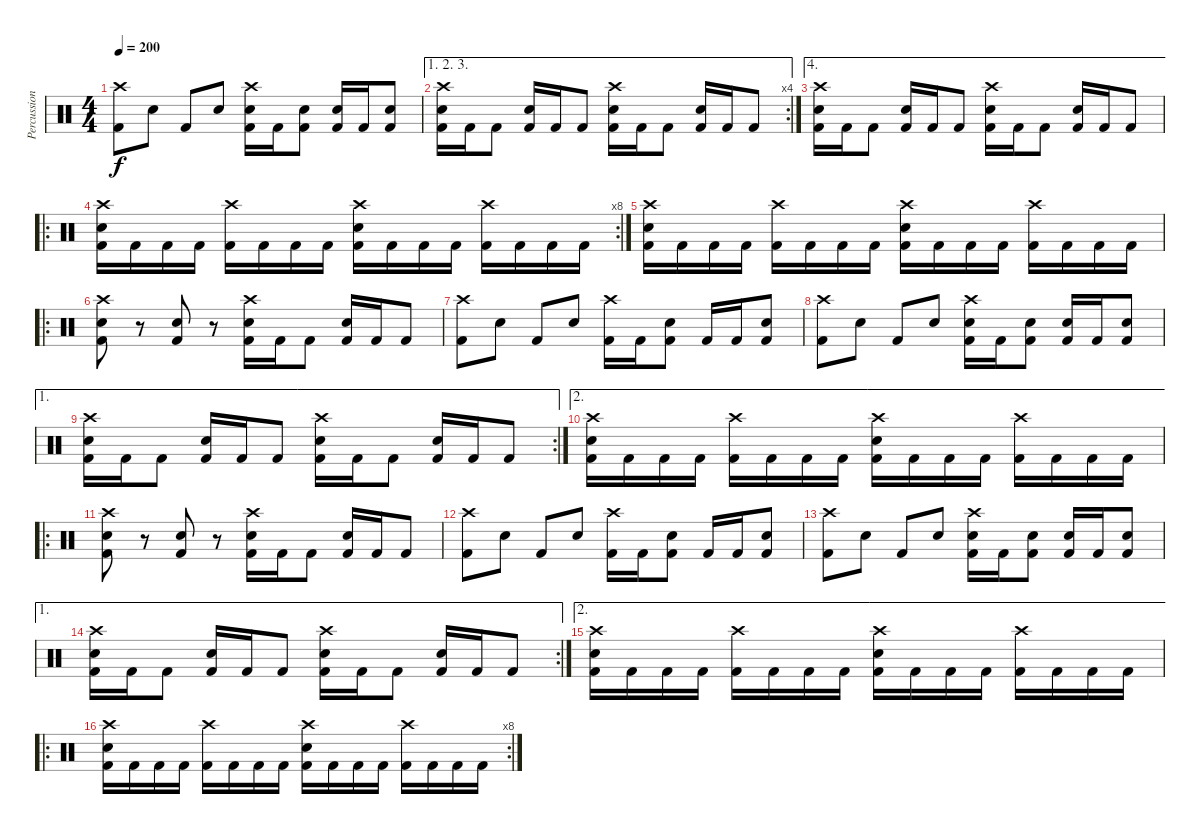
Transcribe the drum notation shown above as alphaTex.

\track ("Percussion" "Percussion") {instrument percussion}
\staff {score}
\articulation defaults
\ts (4 4)
\tempo 200
\clef neutral
\ks c
("Crash high (hit)" "Kick (hit) 2").8{dy f} "Electric Snare (hit)".8 "Kick (hit) 2".8 "Electric Snare (hit)".8 ("Crash high (hit)" "Electric Snare (hit)" "Kick (hit) 2").16 "Kick (hit) 2".16 ("Electric Snare (hit)" "Kick (hit) 2").8 ("Electric Snare (hit)" "Kick (hit) 2").16 "Kick (hit) 2".16 ("Electric Snare (hit)" "Kick (hit) 2").8 |
\ae (1 2 3)
\rc 4
("Crash high (hit)" "Electric Snare (hit)" "Kick (hit) 2").16 "Kick (hit) 2".16 "Kick (hit) 2".8 ("Electric Snare (hit)" "Kick (hit) 2").16 "Kick (hit) 2".16 "Kick (hit) 2".8 ("Crash high (hit)" "Electric Snare (hit)" "Kick (hit) 2").16 "Kick (hit) 2".16 "Kick (hit) 2".8 ("Electric Snare (hit)" "Kick (hit) 2").16 "Kick (hit) 2".16 "Kick (hit) 2".8 |
\ae 4
("Crash high (hit)" "Electric Snare (hit)" "Kick (hit) 2").16 "Kick (hit) 2".16 "Kick (hit) 2".8 ("Electric Snare (hit)" "Kick (hit) 2").16 "Kick (hit) 2".16 "Kick (hit) 2".8 ("Crash high (hit)" "Electric Snare (hit)" "Kick (hit) 2").16 "Kick (hit) 2".16 "Kick (hit) 2".8 ("Electric Snare (hit)" "Kick (hit) 2").16 "Kick (hit) 2".16 "Kick (hit) 2".8 |
\ro
\rc 8
("Crash high (hit)" "Electric Snare (hit)" "Kick (hit) 2").16 "Kick (hit) 2".16 "Kick (hit) 2".16 "Kick (hit) 2".16 ("Crash high (hit)" "Kick (hit) 2").16 "Kick (hit) 2".16 "Kick (hit) 2".16 "Kick (hit) 2".16 ("Crash high (hit)" "Electric Snare (hit)" "Kick (hit) 2").16 "Kick (hit) 2".16 "Kick (hit) 2".16 "Kick (hit) 2".16 ("Crash high (hit)" "Kick (hit) 2").16 "Kick (hit) 2".16 "Kick (hit) 2".16 "Kick (hit) 2".16 |
("Crash high (hit)" "Electric Snare (hit)" "Kick (hit) 2").16 "Kick (hit) 2".16 "Kick (hit) 2".16 "Kick (hit) 2".16 ("Crash high (hit)" "Kick (hit) 2").16 "Kick (hit) 2".16 "Kick (hit) 2".16 "Kick (hit) 2".16 ("Crash high (hit)" "Electric Snare (hit)" "Kick (hit) 2").16 "Kick (hit) 2".16 "Kick (hit) 2".16 "Kick (hit) 2".16 ("Crash high (hit)" "Kick (hit) 2").16 "Kick (hit) 2".16 "Kick (hit) 2".16 "Kick (hit) 2".16 |
\ro
("Crash high (hit)" "Electric Snare (hit)" "Kick (hit) 2").8 r.8 ("Electric Snare (hit)" "Kick (hit) 2").8 r.8 ("Crash high (hit)" "Electric Snare (hit)" "Kick (hit) 2").16 "Kick (hit) 2".16 "Kick (hit) 2".8 ("Electric Snare (hit)" "Kick (hit) 2").16 "Kick (hit) 2".16 "Kick (hit) 2".8 |
("Crash high (hit)" "Kick (hit) 2").8 "Electric Snare (hit)".8 "Kick (hit) 2".8 "Electric Snare (hit)".8 ("Crash high (hit)" "Kick (hit) 2").16 "Kick (hit) 2".16 ("Electric Snare (hit)" "Kick (hit) 2").8 "Kick (hit) 2".16 "Kick (hit) 2".16 ("Electric Snare (hit)" "Kick (hit) 2").8 |
("Crash high (hit)" "Kick (hit) 2").8 "Electric Snare (hit)".8 "Kick (hit) 2".8 "Electric Snare (hit)".8 ("Crash high (hit)" "Electric Snare (hit)" "Kick (hit) 2").16 "Kick (hit) 2".16 ("Electric Snare (hit)" "Kick (hit) 2").8 ("Electric Snare (hit)" "Kick (hit) 2").16 "Kick (hit) 2".16 ("Electric Snare (hit)" "Kick (hit) 2").8 |
\ae 1
\rc 2
("Crash high (hit)" "Electric Snare (hit)" "Kick (hit) 2").16 "Kick (hit) 2".16 "Kick (hit) 2".8 ("Electric Snare (hit)" "Kick (hit) 2").16 "Kick (hit) 2".16 "Kick (hit) 2".8 ("Crash high (hit)" "Electric Snare (hit)" "Kick (hit) 2").16 "Kick (hit) 2".16 "Kick (hit) 2".8 ("Electric Snare (hit)" "Kick (hit) 2").16 "Kick (hit) 2".16 "Kick (hit) 2".8 |
\ae 2
("Crash high (hit)" "Electric Snare (hit)" "Kick (hit) 2").16 "Kick (hit) 2".16 "Kick (hit) 2".16 "Kick (hit) 2".16 ("Crash high (hit)" "Kick (hit) 2").16 "Kick (hit) 2".16 "Kick (hit) 2".16 "Kick (hit) 2".16 ("Crash high (hit)" "Electric Snare (hit)" "Kick (hit) 2").16 "Kick (hit) 2".16 "Kick (hit) 2".16 "Kick (hit) 2".16 ("Crash high (hit)" "Kick (hit) 2").16 "Kick (hit) 2".16 "Kick (hit) 2".16 "Kick (hit) 2".16 |
\ro
("Crash high (hit)" "Electric Snare (hit)" "Kick (hit) 2").8 r.8 ("Electric Snare (hit)" "Kick (hit) 2").8 r.8 ("Crash high (hit)" "Electric Snare (hit)" "Kick (hit) 2").16 "Kick (hit) 2".16 "Kick (hit) 2".8 ("Electric Snare (hit)" "Kick (hit) 2").16 "Kick (hit) 2".16 "Kick (hit) 2".8 |
("Crash high (hit)" "Kick (hit) 2").8 "Electric Snare (hit)".8 "Kick (hit) 2".8 "Electric Snare (hit)".8 ("Crash high (hit)" "Kick (hit) 2").16 "Kick (hit) 2".16 ("Electric Snare (hit)" "Kick (hit) 2").8 "Kick (hit) 2".16 "Kick (hit) 2".16 ("Electric Snare (hit)" "Kick (hit) 2").8 |
("Crash high (hit)" "Kick (hit) 2").8 "Electric Snare (hit)".8 "Kick (hit) 2".8 "Electric Snare (hit)".8 ("Crash high (hit)" "Electric Snare (hit)" "Kick (hit) 2").16 "Kick (hit) 2".16 ("Electric Snare (hit)" "Kick (hit) 2").8 ("Electric Snare (hit)" "Kick (hit) 2").16 "Kick (hit) 2".16 ("Electric Snare (hit)" "Kick (hit) 2").8 |
\ae 1
\rc 2
("Crash high (hit)" "Electric Snare (hit)" "Kick (hit) 2").16 "Kick (hit) 2".16 "Kick (hit) 2".8 ("Electric Snare (hit)" "Kick (hit) 2").16 "Kick (hit) 2".16 "Kick (hit) 2".8 ("Crash high (hit)" "Electric Snare (hit)" "Kick (hit) 2").16 "Kick (hit) 2".16 "Kick (hit) 2".8 ("Electric Snare (hit)" "Kick (hit) 2").16 "Kick (hit) 2".16 "Kick (hit) 2".8 |
\ae 2
("Crash high (hit)" "Electric Snare (hit)" "Kick (hit) 2").16 "Kick (hit) 2".16 "Kick (hit) 2".16 "Kick (hit) 2".16 ("Crash high (hit)" "Kick (hit) 2").16 "Kick (hit) 2".16 "Kick (hit) 2".16 "Kick (hit) 2".16 ("Crash high (hit)" "Electric Snare (hit)" "Kick (hit) 2").16 "Kick (hit) 2".16 "Kick (hit) 2".16 "Kick (hit) 2".16 ("Crash high (hit)" "Kick (hit) 2").16 "Kick (hit) 2".16 "Kick (hit) 2".16 "Kick (hit) 2".16 |
\ro
\rc 8
("Crash high (hit)" "Electric Snare (hit)" "Kick (hit) 2").16 "Kick (hit) 2".16 "Kick (hit) 2".16 "Kick (hit) 2".16 ("Crash high (hit)" "Kick (hit) 2").16 "Kick (hit) 2".16 "Kick (hit) 2".16 "Kick (hit) 2".16 ("Crash high (hit)" "Electric Snare (hit)" "Kick (hit) 2").16 "Kick (hit) 2".16 "Kick (hit) 2".16 "Kick (hit) 2".16 ("Crash high (hit)" "Kick (hit) 2").16 "Kick (hit) 2".16 "Kick (hit) 2".16 "Kick (hit) 2".16
